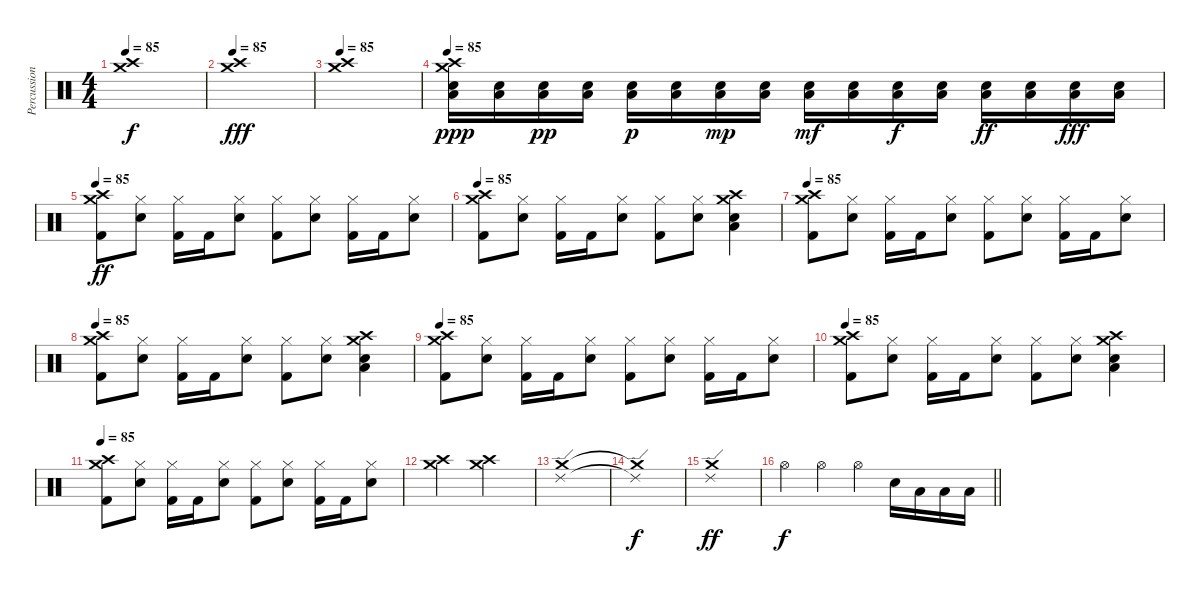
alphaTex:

\track ("Percussion" "Percussion") {instrument percussion}
\staff {score}
\articulation defaults
\ts (4 4)
\tempo 85
\clef neutral
\ks c
("Crash high (hit)" "Crash medium (hit)").1{dy f} |
\tempo 85
("Crash medium (hit)" "Crash high (hit)").1{dy fff} |
\tempo 85
("Crash medium (hit)" "Crash high (hit)").1 |
\tempo 85
("Crash medium (hit)" "Crash high (hit)" "Low Floor Tom (hit)" "Snare (hit) 2").16{dy ppp} ("Low Floor Tom (hit)" "Snare (hit) 2").16 ("Low Floor Tom (hit)" "Snare (hit) 2").16{dy pp} ("Low Floor Tom (hit)" "Snare (hit) 2").16 ("Low Floor Tom (hit)" "Snare (hit) 2").16{dy p} ("Low Floor Tom (hit)" "Snare (hit) 2").16 ("Low Floor Tom (hit)" "Snare (hit) 2").16{dy mp} ("Low Floor Tom (hit)" "Snare (hit) 2").16 ("Low Floor Tom (hit)" "Snare (hit) 2").16{dy mf} ("Low Floor Tom (hit)" "Snare (hit) 2").16 ("Low Floor Tom (hit)" "Snare (hit) 2").16{dy f} ("Low Floor Tom (hit)" "Snare (hit) 2").16 ("Low Floor Tom (hit)" "Snare (hit) 2").16{dy ff} ("Low Floor Tom (hit)" "Snare (hit) 2").16 ("Low Floor Tom (hit)" "Snare (hit) 2").16{dy fff} ("Low Floor Tom (hit)" "Snare (hit) 2").16 |
\tempo 85
("Crash high (hit)" "Crash medium (hit)" "Kick (hit) 2").8{dy ff} ("Hi-Hat (closed)" "Snare (hit) 2").8 ("Hi-Hat (closed)" "Kick (hit) 2").16 "Kick (hit) 2".16 ("Hi-Hat (closed)" "Snare (hit) 2").8 ("Hi-Hat (closed)" "Kick (hit) 2").8 ("Hi-Hat (closed)" "Snare (hit) 2").8 ("Hi-Hat (closed)" "Kick (hit) 2").16 "Kick (hit) 2".16 ("Hi-Hat (closed)" "Snare (hit) 2").8 |
\tempo 85
("Crash high (hit)" "Crash medium (hit)" "Kick (hit) 2").8 ("Hi-Hat (closed)" "Snare (hit) 2").8 ("Hi-Hat (closed)" "Kick (hit) 2").16 "Kick (hit) 2".16 ("Hi-Hat (closed)" "Snare (hit) 2").8 ("Hi-Hat (closed)" "Kick (hit) 2").8 ("Hi-Hat (closed)" "Snare (hit) 2").8 ("Crash high (hit)" "Snare (hit) 2" "Low Floor Tom (hit)" "Crash medium (hit)").4 |
\tempo 85
("Crash high (hit)" "Crash medium (hit)" "Kick (hit) 2").8 ("Hi-Hat (closed)" "Snare (hit) 2").8 ("Hi-Hat (closed)" "Kick (hit) 2").16 "Kick (hit) 2".16 ("Hi-Hat (closed)" "Snare (hit) 2").8 ("Hi-Hat (closed)" "Kick (hit) 2").8 ("Hi-Hat (closed)" "Snare (hit) 2").8 ("Hi-Hat (closed)" "Kick (hit) 2").16 "Kick (hit) 2".16 ("Hi-Hat (closed)" "Snare (hit) 2").8 |
\tempo 85
("Crash high (hit)" "Crash medium (hit)" "Kick (hit) 2").8 ("Hi-Hat (closed)" "Snare (hit) 2").8 ("Hi-Hat (closed)" "Kick (hit) 2").16 "Kick (hit) 2".16 ("Hi-Hat (closed)" "Snare (hit) 2").8 ("Hi-Hat (closed)" "Kick (hit) 2").8 ("Hi-Hat (closed)" "Snare (hit) 2").8 ("Crash high (hit)" "Snare (hit) 2" "Low Floor Tom (hit)" "Crash medium (hit)").4 |
\tempo 85
("Crash high (hit)" "Crash medium (hit)" "Kick (hit) 2").8 ("Hi-Hat (closed)" "Snare (hit) 2").8 ("Hi-Hat (closed)" "Kick (hit) 2").16 "Kick (hit) 2".16 ("Hi-Hat (closed)" "Snare (hit) 2").8 ("Hi-Hat (closed)" "Kick (hit) 2").8 ("Hi-Hat (closed)" "Snare (hit) 2").8 ("Hi-Hat (closed)" "Kick (hit) 2").16 "Kick (hit) 2".16 ("Hi-Hat (closed)" "Snare (hit) 2").8 |
\tempo 85
("Crash high (hit)" "Crash medium (hit)" "Kick (hit) 2").8 ("Hi-Hat (closed)" "Snare (hit) 2").8 ("Hi-Hat (closed)" "Kick (hit) 2").16 "Kick (hit) 2".16 ("Hi-Hat (closed)" "Snare (hit) 2").8 ("Hi-Hat (closed)" "Kick (hit) 2").8 ("Hi-Hat (closed)" "Snare (hit) 2").8 ("Crash high (hit)" "Snare (hit) 2" "Low Floor Tom (hit)" "Crash medium (hit)").4 |
\tempo 85
("Crash high (hit)" "Crash medium (hit)" "Kick (hit) 2").8 ("Hi-Hat (closed)" "Snare (hit) 2").8 ("Hi-Hat (closed)" "Kick (hit) 2").16 "Kick (hit) 2".16 ("Hi-Hat (closed)" "Snare (hit) 2").8 ("Hi-Hat (closed)" "Kick (hit) 2").8 ("Hi-Hat (closed)" "Snare (hit) 2").8 ("Hi-Hat (closed)" "Kick (hit) 2").16 "Kick (hit) 2".16 ("Hi-Hat (closed)" "Snare (hit) 2").8 |
("Crash medium (hit)" "Crash high (hit)").2 ("Crash medium (hit)" "Crash high (hit)").2 |
("Ride (edge) 2" "Crash medium (hit)").1 |
("Ride (edge) 2"{t} "Crash medium (hit)"{t}).1{dy f} |
("Ride (edge) 2" "Crash medium (hit)").1{dy ff} |
\barLineRight lightlight "Hi-Hat (open)".4{dy f} "Hi-Hat (open)".4 "Hi-Hat (open)".4 "Snare (hit) 2".16 "Low Tom (hit)".16 "Low Tom (hit)".16 "Low Floor Tom (hit)".16
